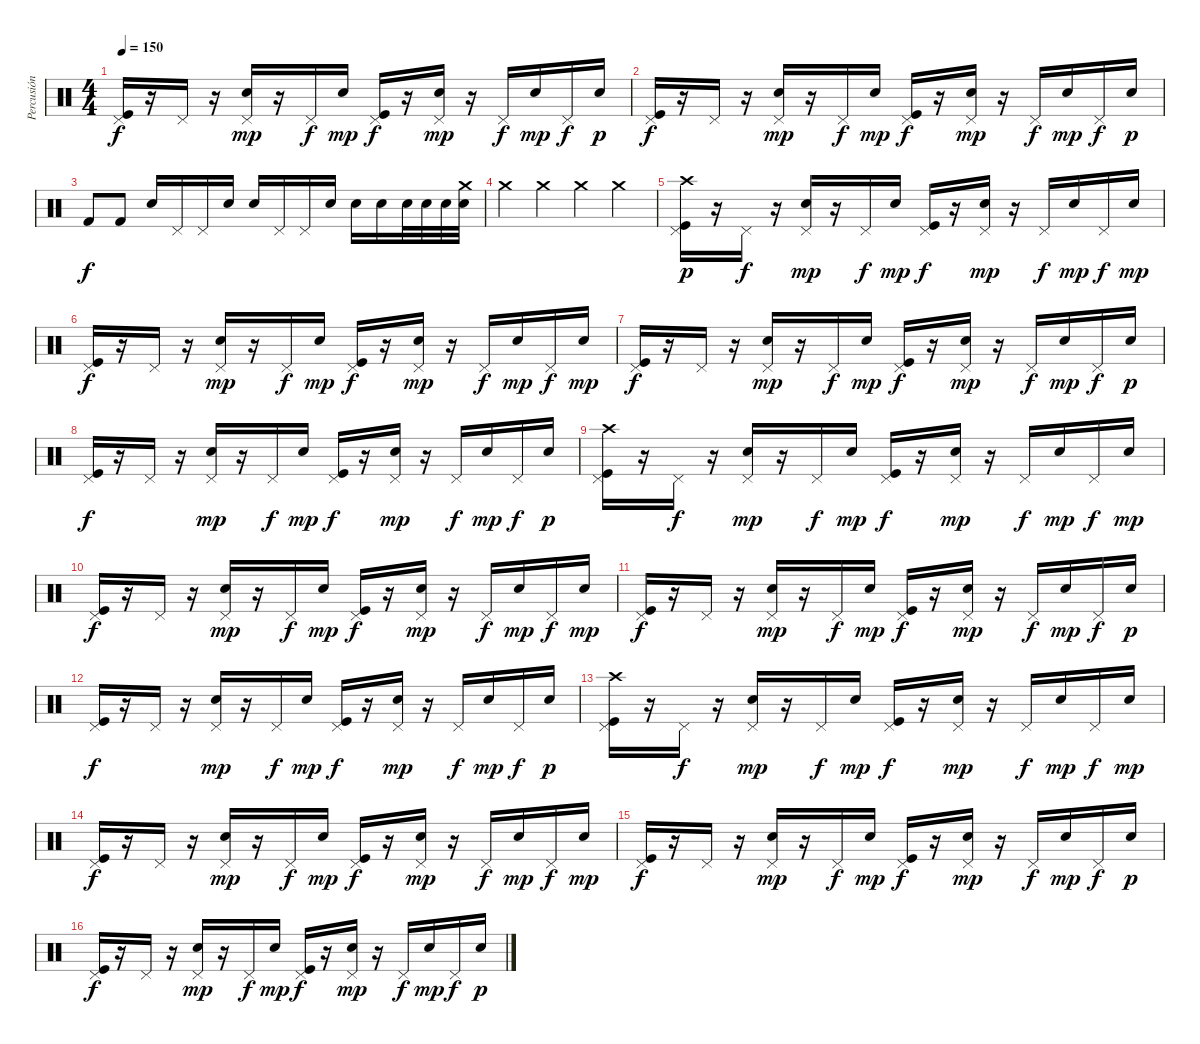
\track ("Percusión" "Percusión") {instrument percussion}
\staff {score}
\articulation defaults
\ts (4 4)
\tempo 150
\clef neutral
\ks c
("Pedal Hi-Hat (hit)" "Kick (hit)").16{dy f} r.16 "Pedal Hi-Hat (hit)".16 r.16 ("Pedal Hi-Hat (hit)" "Electric Snare (hit)").16{dy mp} r.16 "Pedal Hi-Hat (hit)".16{dy f} "Electric Snare (hit)".16{dy mp} ("Pedal Hi-Hat (hit)" "Kick (hit)").16{dy f} r.16 ("Pedal Hi-Hat (hit)" "Electric Snare (hit)").16{dy mp} r.16 "Pedal Hi-Hat (hit)".16{dy f} "Electric Snare (hit)".16{dy mp} "Pedal Hi-Hat (hit)".16{dy f} "Electric Snare (hit)".16{dy p} |
("Pedal Hi-Hat (hit)" "Kick (hit)").16{dy f} r.16 "Pedal Hi-Hat (hit)".16 r.16 ("Pedal Hi-Hat (hit)" "Electric Snare (hit)").16{dy mp} r.16 "Pedal Hi-Hat (hit)".16{dy f} "Electric Snare (hit)".16{dy mp} ("Pedal Hi-Hat (hit)" "Kick (hit)").16{dy f} r.16 ("Pedal Hi-Hat (hit)" "Electric Snare (hit)").16{dy mp} r.16 "Pedal Hi-Hat (hit)".16{dy f} "Electric Snare (hit)".16{dy mp} "Pedal Hi-Hat (hit)".16{dy f} "Electric Snare (hit)".16{dy p} |
"Kick (hit) 2".8{dy f} "Kick (hit) 2".8 "Electric Snare (hit)".16 "Pedal Hi-Hat (hit)".16 "Pedal Hi-Hat (hit)".16 "Electric Snare (hit)".16 "Electric Snare (hit)".16 "Pedal Hi-Hat (hit)".16 "Pedal Hi-Hat (hit)".16 "Electric Snare (hit)".16 "Electric Snare (hit)".16 "Electric Snare (hit)".16 "Electric Snare (hit)".32 "Electric Snare (hit)".32 "Electric Snare (hit)".32 ("Electric Snare (hit)" "Crash medium (hit)").32 |
"Crash medium (hit)".4 "Crash medium (hit)".4 "Crash medium (hit)".4 "Crash medium (hit)".4 |
("Pedal Hi-Hat (hit)" "Crash high (hit)" "Kick (hit)").16{dy p} r.16 "Pedal Hi-Hat (hit)".16{dy f} r.16 ("Pedal Hi-Hat (hit)" "Electric Snare (hit)").16{dy mp} r.16 "Pedal Hi-Hat (hit)".16{dy f} "Electric Snare (hit)".16{dy mp} ("Pedal Hi-Hat (hit)" "Kick (hit)").16{dy f} r.16 ("Pedal Hi-Hat (hit)" "Electric Snare (hit)").16{dy mp} r.16 "Pedal Hi-Hat (hit)".16{dy f} "Electric Snare (hit)".16{dy mp} "Pedal Hi-Hat (hit)".16{dy f} "Electric Snare (hit)".16{dy mp} |
("Pedal Hi-Hat (hit)" "Kick (hit)").16{dy f} r.16 "Pedal Hi-Hat (hit)".16 r.16 ("Pedal Hi-Hat (hit)" "Electric Snare (hit)").16{dy mp} r.16 "Pedal Hi-Hat (hit)".16{dy f} "Electric Snare (hit)".16{dy mp} ("Pedal Hi-Hat (hit)" "Kick (hit)").16{dy f} r.16 ("Pedal Hi-Hat (hit)" "Electric Snare (hit)").16{dy mp} r.16 "Pedal Hi-Hat (hit)".16{dy f} "Electric Snare (hit)".16{dy mp} "Pedal Hi-Hat (hit)".16{dy f} "Electric Snare (hit)".16{dy mp} |
("Pedal Hi-Hat (hit)" "Kick (hit)").16{dy f} r.16 "Pedal Hi-Hat (hit)".16 r.16 ("Pedal Hi-Hat (hit)" "Electric Snare (hit)").16{dy mp} r.16 "Pedal Hi-Hat (hit)".16{dy f} "Electric Snare (hit)".16{dy mp} ("Pedal Hi-Hat (hit)" "Kick (hit)").16{dy f} r.16 ("Pedal Hi-Hat (hit)" "Electric Snare (hit)").16{dy mp} r.16 "Pedal Hi-Hat (hit)".16{dy f} "Electric Snare (hit)".16{dy mp} "Pedal Hi-Hat (hit)".16{dy f} "Electric Snare (hit)".16{dy p} |
("Pedal Hi-Hat (hit)" "Kick (hit)").16{dy f} r.16 "Pedal Hi-Hat (hit)".16 r.16 ("Pedal Hi-Hat (hit)" "Electric Snare (hit)").16{dy mp} r.16 "Pedal Hi-Hat (hit)".16{dy f} "Electric Snare (hit)".16{dy mp} ("Pedal Hi-Hat (hit)" "Kick (hit)").16{dy f} r.16 ("Pedal Hi-Hat (hit)" "Electric Snare (hit)").16{dy mp} r.16 "Pedal Hi-Hat (hit)".16{dy f} "Electric Snare (hit)".16{dy mp} "Pedal Hi-Hat (hit)".16{dy f} "Electric Snare (hit)".16{dy p} |
("Pedal Hi-Hat (hit)" "Crash high (hit)" "Kick (hit)").16 r.16 "Pedal Hi-Hat (hit)".16{dy f} r.16 ("Pedal Hi-Hat (hit)" "Electric Snare (hit)").16{dy mp} r.16 "Pedal Hi-Hat (hit)".16{dy f} "Electric Snare (hit)".16{dy mp} ("Pedal Hi-Hat (hit)" "Kick (hit)").16{dy f} r.16 ("Pedal Hi-Hat (hit)" "Electric Snare (hit)").16{dy mp} r.16 "Pedal Hi-Hat (hit)".16{dy f} "Electric Snare (hit)".16{dy mp} "Pedal Hi-Hat (hit)".16{dy f} "Electric Snare (hit)".16{dy mp} |
("Pedal Hi-Hat (hit)" "Kick (hit)").16{dy f} r.16 "Pedal Hi-Hat (hit)".16 r.16 ("Pedal Hi-Hat (hit)" "Electric Snare (hit)").16{dy mp} r.16 "Pedal Hi-Hat (hit)".16{dy f} "Electric Snare (hit)".16{dy mp} ("Pedal Hi-Hat (hit)" "Kick (hit)").16{dy f} r.16 ("Pedal Hi-Hat (hit)" "Electric Snare (hit)").16{dy mp} r.16 "Pedal Hi-Hat (hit)".16{dy f} "Electric Snare (hit)".16{dy mp} "Pedal Hi-Hat (hit)".16{dy f} "Electric Snare (hit)".16{dy mp} |
("Pedal Hi-Hat (hit)" "Kick (hit)").16{dy f} r.16 "Pedal Hi-Hat (hit)".16 r.16 ("Pedal Hi-Hat (hit)" "Electric Snare (hit)").16{dy mp} r.16 "Pedal Hi-Hat (hit)".16{dy f} "Electric Snare (hit)".16{dy mp} ("Pedal Hi-Hat (hit)" "Kick (hit)").16{dy f} r.16 ("Pedal Hi-Hat (hit)" "Electric Snare (hit)").16{dy mp} r.16 "Pedal Hi-Hat (hit)".16{dy f} "Electric Snare (hit)".16{dy mp} "Pedal Hi-Hat (hit)".16{dy f} "Electric Snare (hit)".16{dy p} |
("Pedal Hi-Hat (hit)" "Kick (hit)").16{dy f} r.16 "Pedal Hi-Hat (hit)".16 r.16 ("Pedal Hi-Hat (hit)" "Electric Snare (hit)").16{dy mp} r.16 "Pedal Hi-Hat (hit)".16{dy f} "Electric Snare (hit)".16{dy mp} ("Pedal Hi-Hat (hit)" "Kick (hit)").16{dy f} r.16 ("Pedal Hi-Hat (hit)" "Electric Snare (hit)").16{dy mp} r.16 "Pedal Hi-Hat (hit)".16{dy f} "Electric Snare (hit)".16{dy mp} "Pedal Hi-Hat (hit)".16{dy f} "Electric Snare (hit)".16{dy p} |
("Pedal Hi-Hat (hit)" "Crash high (hit)" "Kick (hit)").16 r.16 "Pedal Hi-Hat (hit)".16{dy f} r.16 ("Pedal Hi-Hat (hit)" "Electric Snare (hit)").16{dy mp} r.16 "Pedal Hi-Hat (hit)".16{dy f} "Electric Snare (hit)".16{dy mp} ("Pedal Hi-Hat (hit)" "Kick (hit)").16{dy f} r.16 ("Pedal Hi-Hat (hit)" "Electric Snare (hit)").16{dy mp} r.16 "Pedal Hi-Hat (hit)".16{dy f} "Electric Snare (hit)".16{dy mp} "Pedal Hi-Hat (hit)".16{dy f} "Electric Snare (hit)".16{dy mp} |
("Pedal Hi-Hat (hit)" "Kick (hit)").16{dy f} r.16 "Pedal Hi-Hat (hit)".16 r.16 ("Pedal Hi-Hat (hit)" "Electric Snare (hit)").16{dy mp} r.16 "Pedal Hi-Hat (hit)".16{dy f} "Electric Snare (hit)".16{dy mp} ("Pedal Hi-Hat (hit)" "Kick (hit)").16{dy f} r.16 ("Pedal Hi-Hat (hit)" "Electric Snare (hit)").16{dy mp} r.16 "Pedal Hi-Hat (hit)".16{dy f} "Electric Snare (hit)".16{dy mp} "Pedal Hi-Hat (hit)".16{dy f} "Electric Snare (hit)".16{dy mp} |
("Pedal Hi-Hat (hit)" "Kick (hit)").16{dy f} r.16 "Pedal Hi-Hat (hit)".16 r.16 ("Pedal Hi-Hat (hit)" "Electric Snare (hit)").16{dy mp} r.16 "Pedal Hi-Hat (hit)".16{dy f} "Electric Snare (hit)".16{dy mp} ("Pedal Hi-Hat (hit)" "Kick (hit)").16{dy f} r.16 ("Pedal Hi-Hat (hit)" "Electric Snare (hit)").16{dy mp} r.16 "Pedal Hi-Hat (hit)".16{dy f} "Electric Snare (hit)".16{dy mp} "Pedal Hi-Hat (hit)".16{dy f} "Electric Snare (hit)".16{dy p} |
("Pedal Hi-Hat (hit)" "Kick (hit)").16{dy f} r.16 "Pedal Hi-Hat (hit)".16 r.16 ("Pedal Hi-Hat (hit)" "Electric Snare (hit)").16{dy mp} r.16 "Pedal Hi-Hat (hit)".16{dy f} "Electric Snare (hit)".16{dy mp} ("Pedal Hi-Hat (hit)" "Kick (hit)").16{dy f} r.16 ("Pedal Hi-Hat (hit)" "Electric Snare (hit)").16{dy mp} r.16 "Pedal Hi-Hat (hit)".16{dy f} "Electric Snare (hit)".16{dy mp} "Pedal Hi-Hat (hit)".16{dy f} "Electric Snare (hit)".16{dy p}
